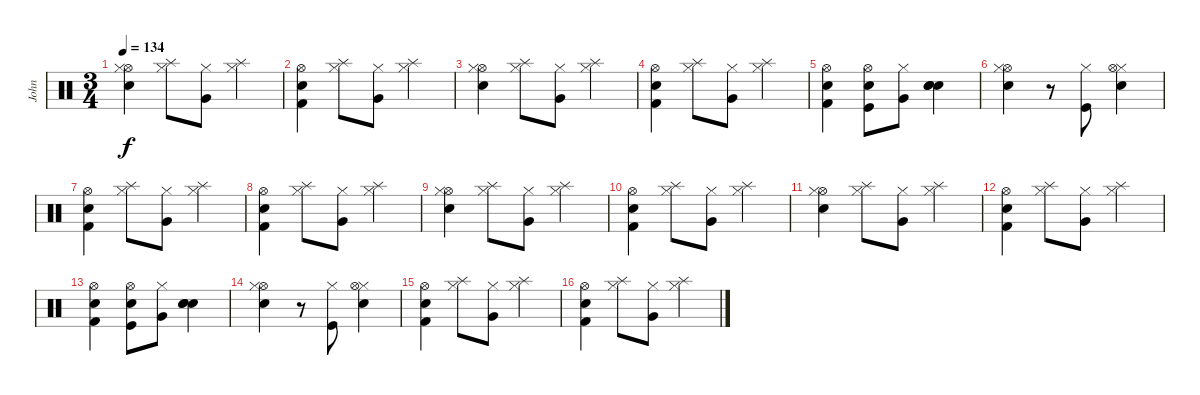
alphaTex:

\track ("John" "John") {instrument percussion}
\staff {score}
\articulation defaults
\ts (3 4)
\tempo 134
\clef neutral
\ks c
("Hi-Hat (open)" "Hi-Hat (closed)" "Electric Snare (hit)").4{dy f} ("Hi-Hat (closed)" "Splash (hit)").8 ("Hi-Hat (closed)" "Very Low Tom (hit)").8 ("Hi-Hat (closed)" "Splash (hit)").4 |
("Hi-Hat (open)" "Electric Snare (hit)" "Kick (hit) 2").4 ("Hi-Hat (closed)" "Splash (hit)").8 ("Hi-Hat (closed)" "Very Low Tom (hit)").8 ("Hi-Hat (closed)" "Splash (hit)").4 |
("Hi-Hat (open)" "Hi-Hat (closed)" "Electric Snare (hit)").4 ("Hi-Hat (closed)" "Splash (hit)").8 ("Hi-Hat (closed)" "Very Low Tom (hit)").8 ("Hi-Hat (closed)" "Splash (hit)").4 |
("Hi-Hat (open)" "Electric Snare (hit)" "Kick (hit) 2").4 ("Hi-Hat (closed)" "Splash (hit)").8 ("Hi-Hat (closed)" "Very Low Tom (hit)").8 ("Hi-Hat (closed)" "Splash (hit)").4 |
("Hi-Hat (open)" "Electric Snare (hit)" "Kick (hit) 2").4 ("Hi-Hat (open)" "Electric Snare (hit)" "Kick (hit)").8 ("Hi-Hat (closed)" "Very Low Tom (hit)").8 ("Electric Snare (hit)" "Electric Snare (hit)" "Snare (hit) 2").4 |
("Hi-Hat (open)" "Hi-Hat (closed)" "Electric Snare (hit)").4 r.8 ("Hi-Hat (closed)" "Kick (hit)").8 ("Hi-Hat (closed)" "Electric Snare (hit)" "Hi-Hat (open)").4 |
("Hi-Hat (open)" "Electric Snare (hit)" "Kick (hit) 2").4 ("Hi-Hat (closed)" "Splash (hit)").8 ("Hi-Hat (closed)" "Very Low Tom (hit)").8 ("Hi-Hat (closed)" "Splash (hit)").4 |
("Hi-Hat (open)" "Electric Snare (hit)" "Kick (hit) 2").4 ("Hi-Hat (closed)" "Splash (hit)").8 ("Hi-Hat (closed)" "Very Low Tom (hit)").8 ("Hi-Hat (closed)" "Splash (hit)").4 |
("Hi-Hat (open)" "Hi-Hat (closed)" "Electric Snare (hit)").4 ("Hi-Hat (closed)" "Splash (hit)").8 ("Hi-Hat (closed)" "Very Low Tom (hit)").8 ("Hi-Hat (closed)" "Splash (hit)").4 |
("Hi-Hat (open)" "Electric Snare (hit)" "Kick (hit) 2").4 ("Hi-Hat (closed)" "Splash (hit)").8 ("Hi-Hat (closed)" "Very Low Tom (hit)").8 ("Hi-Hat (closed)" "Splash (hit)").4 |
("Hi-Hat (open)" "Hi-Hat (closed)" "Electric Snare (hit)").4 ("Hi-Hat (closed)" "Splash (hit)").8 ("Hi-Hat (closed)" "Very Low Tom (hit)").8 ("Hi-Hat (closed)" "Splash (hit)").4 |
("Hi-Hat (open)" "Electric Snare (hit)" "Kick (hit) 2").4 ("Hi-Hat (closed)" "Splash (hit)").8 ("Hi-Hat (closed)" "Very Low Tom (hit)").8 ("Hi-Hat (closed)" "Splash (hit)").4 |
("Hi-Hat (open)" "Electric Snare (hit)" "Kick (hit) 2").4 ("Hi-Hat (open)" "Electric Snare (hit)" "Kick (hit)").8 ("Hi-Hat (closed)" "Very Low Tom (hit)").8 ("Electric Snare (hit)" "Electric Snare (hit)" "Snare (hit) 2").4 |
("Hi-Hat (open)" "Hi-Hat (closed)" "Electric Snare (hit)").4 r.8 ("Hi-Hat (closed)" "Kick (hit)").8 ("Hi-Hat (closed)" "Electric Snare (hit)" "Hi-Hat (open)").4 |
("Hi-Hat (open)" "Electric Snare (hit)" "Kick (hit) 2").4 ("Hi-Hat (closed)" "Splash (hit)").8 ("Hi-Hat (closed)" "Very Low Tom (hit)").8 ("Hi-Hat (closed)" "Splash (hit)").4 |
("Hi-Hat (open)" "Electric Snare (hit)" "Kick (hit) 2").4 ("Hi-Hat (closed)" "Splash (hit)").8 ("Hi-Hat (closed)" "Very Low Tom (hit)").8 ("Hi-Hat (closed)" "Splash (hit)").4
